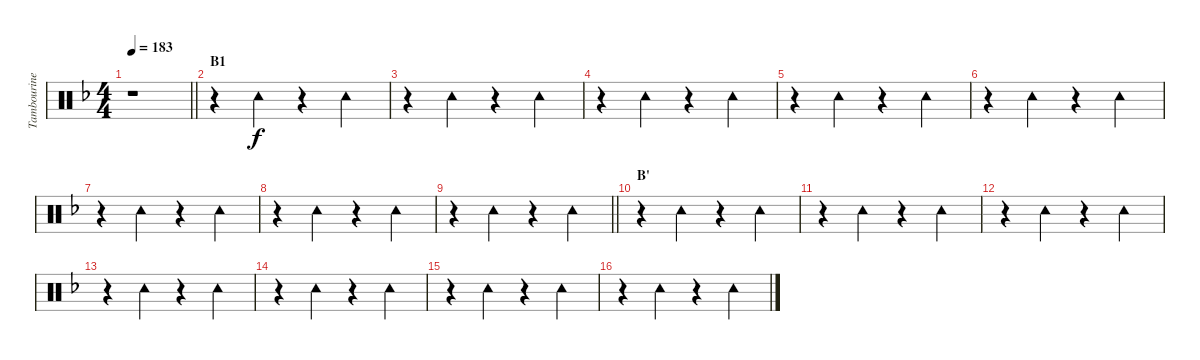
\track ("Tambourine" "Tambourine") {instrument percussion}
\staff {score}
\articulation defaults
\ts (4 4)
\tempo 183
\clef neutral
\barLineRight lightlight
\ks f
r.1{dy f} |
\section ("" "B1")
r.4 "Tambourine (hit)".4 r.4 "Tambourine (hit)".4 |
r.4 "Tambourine (hit)".4 r.4 "Tambourine (hit)".4 |
r.4 "Tambourine (hit)".4 r.4 "Tambourine (hit)".4 |
r.4 "Tambourine (hit)".4 r.4 "Tambourine (hit)".4 |
r.4 "Tambourine (hit)".4 r.4 "Tambourine (hit)".4 |
r.4 "Tambourine (hit)".4 r.4 "Tambourine (hit)".4 |
r.4 "Tambourine (hit)".4 r.4 "Tambourine (hit)".4 |
\barLineRight lightlight
r.4 "Tambourine (hit)".4 r.4 "Tambourine (hit)".4 |
\section ("" "B'")
r.4 "Tambourine (hit)".4 r.4 "Tambourine (hit)".4 |
r.4 "Tambourine (hit)".4 r.4 "Tambourine (hit)".4 |
r.4 "Tambourine (hit)".4 r.4 "Tambourine (hit)".4 |
r.4 "Tambourine (hit)".4 r.4 "Tambourine (hit)".4 |
r.4 "Tambourine (hit)".4 r.4 "Tambourine (hit)".4 |
r.4 "Tambourine (hit)".4 r.4 "Tambourine (hit)".4 |
r.4 "Tambourine (hit)".4 r.4 "Tambourine (hit)".4
